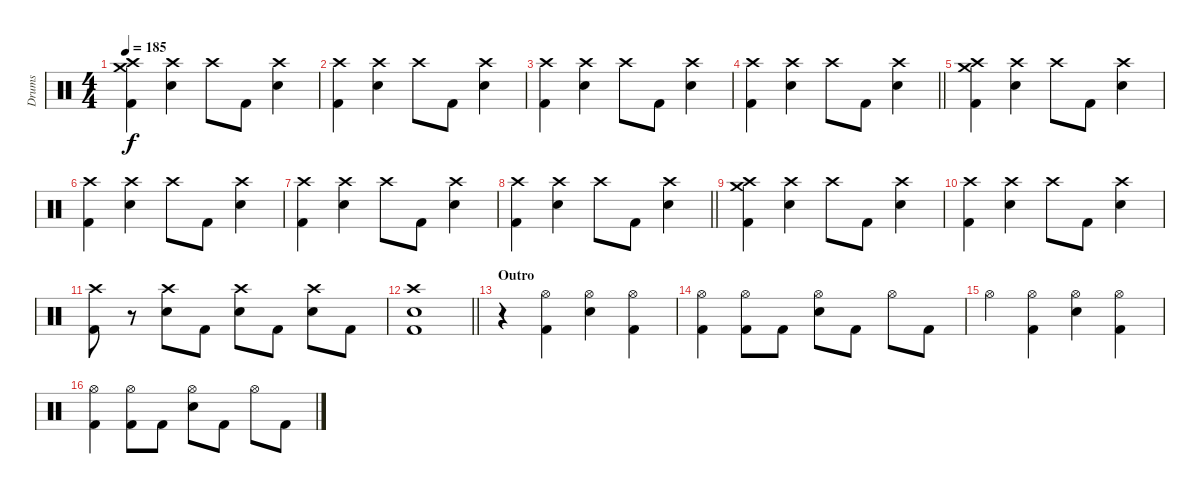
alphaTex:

\track ("Drums" "Drums") {instrument percussion}
\staff {score}
\articulation defaults
\ts (4 4)
\tempo 185
\clef neutral
\ks c
("Crash high (hit)" "Crash medium (hit)" "Kick (hit) 2").4{dy f} ("Crash high (hit)" "Electric Snare (hit)").4 "Crash high (hit)".8 "Kick (hit) 2".8 ("Crash high (hit)" "Electric Snare (hit)").4 |
("Crash high (hit)" "Kick (hit) 2").4 ("Crash high (hit)" "Electric Snare (hit)").4 "Crash high (hit)".8 "Kick (hit) 2".8 ("Crash high (hit)" "Electric Snare (hit)").4 |
("Crash high (hit)" "Kick (hit) 2").4 ("Crash high (hit)" "Electric Snare (hit)").4 "Crash high (hit)".8 "Kick (hit) 2".8 ("Crash high (hit)" "Electric Snare (hit)").4 |
\barLineRight lightlight
("Crash high (hit)" "Kick (hit) 2").4 ("Crash high (hit)" "Electric Snare (hit)").4 "Crash high (hit)".8 "Kick (hit) 2".8 ("Crash high (hit)" "Electric Snare (hit)").4 |
("Crash high (hit)" "Crash medium (hit)" "Kick (hit) 2").4 ("Crash high (hit)" "Electric Snare (hit)").4 "Crash high (hit)".8 "Kick (hit) 2".8 ("Crash high (hit)" "Electric Snare (hit)").4 |
("Crash high (hit)" "Kick (hit) 2").4 ("Crash high (hit)" "Electric Snare (hit)").4 "Crash high (hit)".8 "Kick (hit) 2".8 ("Crash high (hit)" "Electric Snare (hit)").4 |
("Crash high (hit)" "Kick (hit) 2").4 ("Crash high (hit)" "Electric Snare (hit)").4 "Crash high (hit)".8 "Kick (hit) 2".8 ("Crash high (hit)" "Electric Snare (hit)").4 |
\barLineRight lightlight
("Crash high (hit)" "Kick (hit) 2").4 ("Crash high (hit)" "Electric Snare (hit)").4 "Crash high (hit)".8 "Kick (hit) 2".8 ("Crash high (hit)" "Electric Snare (hit)").4 |
("Crash high (hit)" "Crash medium (hit)" "Kick (hit) 2").4 ("Crash high (hit)" "Electric Snare (hit)").4 "Crash high (hit)".8 "Kick (hit) 2".8 ("Crash high (hit)" "Electric Snare (hit)").4 |
("Crash high (hit)" "Kick (hit) 2").4 ("Crash high (hit)" "Electric Snare (hit)").4 "Crash high (hit)".8 "Kick (hit) 2".8 ("Crash high (hit)" "Electric Snare (hit)").4 |
("Crash high (hit)" "Kick (hit) 2").8 r.8 ("Crash high (hit)" "Electric Snare (hit)").8 "Kick (hit) 2".8 ("Crash high (hit)" "Electric Snare (hit)").8 "Kick (hit) 2".8 ("Crash high (hit)" "Electric Snare (hit)").8 "Kick (hit) 2".8 |
\barLineRight lightlight
("Crash high (hit)" "Electric Snare (hit)" "Kick (hit) 2").1 |
\section ("" "Outro")
r.4 ("Hi-Hat (open)" "Kick (hit) 2").4 ("Hi-Hat (open)" "Electric Snare (hit)").4 ("Hi-Hat (open)" "Kick (hit) 2").4 |
("Hi-Hat (open)" "Kick (hit) 2").4 ("Hi-Hat (open)" "Kick (hit) 2").8 "Kick (hit) 2".8 ("Hi-Hat (open)" "Electric Snare (hit)").8 "Kick (hit) 2".8 "Hi-Hat (open)".8 "Kick (hit) 2".8 |
"Hi-Hat (open)".4 ("Hi-Hat (open)" "Kick (hit) 2").4 ("Hi-Hat (open)" "Electric Snare (hit)").4 ("Hi-Hat (open)" "Kick (hit) 2").4 |
("Hi-Hat (open)" "Kick (hit) 2").4 ("Hi-Hat (open)" "Kick (hit) 2").8 "Kick (hit) 2".8 ("Hi-Hat (open)" "Electric Snare (hit)").8 "Kick (hit) 2".8 "Hi-Hat (open)".8 "Kick (hit) 2".8
